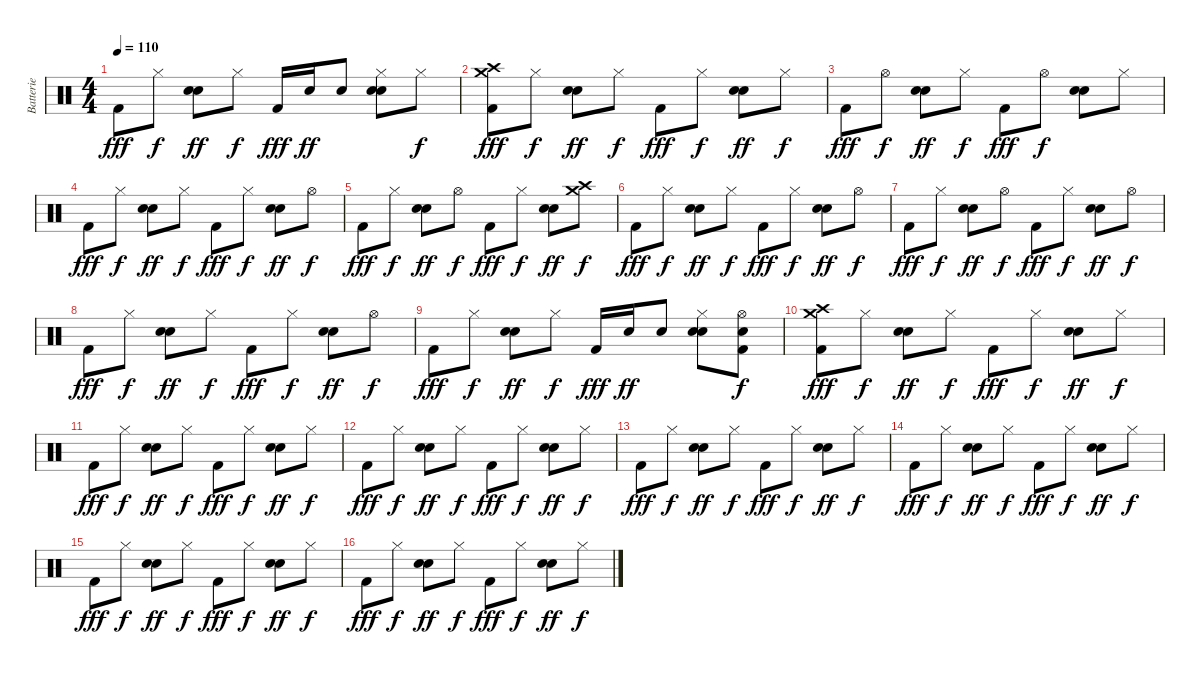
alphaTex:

\track ("Batterie" "Batterie") {instrument percussion}
\staff {score}
\articulation defaults
\ts (4 4)
\tempo 110
\clef neutral
\ks c "Kick (hit) 2".8{dy fff} "Hi-Hat (closed)".8{dy f}
("Snare (hit) 2" "Hand Clap (hit)").8{dy ff} "Hi-Hat (closed)".8{dy f} "Kick (hit) 2".16{dy fff} "Snare (hit) 2".16{dy ff} "Snare (hit) 2".8 ("Hi-Hat (closed)" "Snare (hit) 2" "Hand Clap (hit)").8 "Hi-Hat (closed)".8{dy f} |
("Crash medium (hit)" "Crash high (hit)" "Kick (hit) 2").8{dy fff} "Hi-Hat (closed)".8{dy f} ("Snare (hit) 2" "Hand Clap (hit)").8{dy ff} "Hi-Hat (closed)".8{dy f} "Kick (hit) 2".8{dy fff} "Hi-Hat (closed)".8{dy f} ("Snare (hit) 2" "Hand Clap (hit)").8{dy ff} "Hi-Hat (closed)".8{dy f} |
"Kick (hit) 2".8{dy fff} "Hi-Hat (open)".8{dy f} ("Snare (hit) 2" "Hand Clap (hit)").8{dy ff} "Hi-Hat (closed)".8{dy f} "Kick (hit) 2".8{dy fff} "Hi-Hat (open)".8{dy f} ("Snare (hit) 2" "Hand Clap (hit)").8 "Hi-Hat (closed)".8 |
"Kick (hit) 2".8{dy fff} "Hi-Hat (closed)".8{dy f} ("Snare (hit) 2" "Hand Clap (hit)").8{dy ff} "Hi-Hat (closed)".8{dy f} "Kick (hit) 2".8{dy fff} "Hi-Hat (closed)".8{dy f} ("Snare (hit) 2" "Hand Clap (hit)").8{dy ff} "Hi-Hat (open)".8{dy f} |
"Kick (hit) 2".8{dy fff} "Hi-Hat (closed)".8{dy f} ("Snare (hit) 2" "Hand Clap (hit)").8{dy ff} "Hi-Hat (open)".8{dy f} "Kick (hit) 2".8{dy fff} "Hi-Hat (closed)".8{dy f} ("Snare (hit) 2" "Hand Clap (hit)").8{dy ff} ("Crash medium (hit)" "Crash high (hit)").8{dy f} |
"Kick (hit) 2".8{dy fff} "Hi-Hat (closed)".8{dy f} ("Snare (hit) 2" "Hand Clap (hit)").8{dy ff} "Hi-Hat (closed)".8{dy f} "Kick (hit) 2".8{dy fff} "Hi-Hat (closed)".8{dy f} ("Snare (hit) 2" "Hand Clap (hit)").8{dy ff} "Hi-Hat (open)".8{dy f} |
"Kick (hit) 2".8{dy fff} "Hi-Hat (closed)".8{dy f} ("Snare (hit) 2" "Hand Clap (hit)").8{dy ff} "Hi-Hat (open)".8{dy f} "Kick (hit) 2".8{dy fff} "Hi-Hat (closed)".8{dy f} ("Snare (hit) 2" "Hand Clap (hit)").8{dy ff} "Hi-Hat (open)".8{dy f} |
"Kick (hit) 2".8{dy fff} "Hi-Hat (closed)".8{dy f} ("Snare (hit) 2" "Hand Clap (hit)").8{dy ff} "Hi-Hat (closed)".8{dy f} "Kick (hit) 2".8{dy fff} "Hi-Hat (closed)".8{dy f} ("Snare (hit) 2" "Hand Clap (hit)").8{dy ff} "Hi-Hat (open)".8{dy f} |
"Kick (hit) 2".8{dy fff} "Hi-Hat (closed)".8{dy f} ("Snare (hit) 2" "Hand Clap (hit)").8{dy ff} "Hi-Hat (closed)".8{dy f} "Kick (hit) 2".16{dy fff} "Snare (hit) 2".16{dy ff} "Snare (hit) 2".8 ("Hi-Hat (closed)" "Snare (hit) 2" "Hand Clap (hit)").8 ("Hi-Hat (open)" "Snare (hit) 2" "Kick (hit) 2").8{dy f} |
("Crash medium (hit)" "Crash high (hit)" "Kick (hit) 2").8{dy fff} "Hi-Hat (closed)".8{dy f} ("Snare (hit) 2" "Hand Clap (hit)").8{dy ff} "Hi-Hat (closed)".8{dy f} "Kick (hit) 2".8{dy fff} "Hi-Hat (closed)".8{dy f} ("Snare (hit) 2" "Hand Clap (hit)").8{dy ff} "Hi-Hat (closed)".8{dy f} |
"Kick (hit) 2".8{dy fff} "Hi-Hat (closed)".8{dy f} ("Snare (hit) 2" "Hand Clap (hit)").8{dy ff} "Hi-Hat (closed)".8{dy f} "Kick (hit) 2".8{dy fff} "Hi-Hat (closed)".8{dy f} ("Snare (hit) 2" "Hand Clap (hit)").8{dy ff} "Hi-Hat (closed)".8{dy f} |
"Kick (hit) 2".8{dy fff} "Hi-Hat (closed)".8{dy f} ("Snare (hit) 2" "Hand Clap (hit)").8{dy ff} "Hi-Hat (closed)".8{dy f} "Kick (hit) 2".8{dy fff} "Hi-Hat (closed)".8{dy f} ("Snare (hit) 2" "Hand Clap (hit)").8{dy ff} "Hi-Hat (closed)".8{dy f} |
"Kick (hit) 2".8{dy fff} "Hi-Hat (closed)".8{dy f} ("Snare (hit) 2" "Hand Clap (hit)").8{dy ff} "Hi-Hat (closed)".8{dy f} "Kick (hit) 2".8{dy fff} "Hi-Hat (closed)".8{dy f} ("Snare (hit) 2" "Hand Clap (hit)").8{dy ff} "Hi-Hat (closed)".8{dy f} |
"Kick (hit) 2".8{dy fff} "Hi-Hat (closed)".8{dy f} ("Snare (hit) 2" "Hand Clap (hit)").8{dy ff} "Hi-Hat (closed)".8{dy f} "Kick (hit) 2".8{dy fff} "Hi-Hat (closed)".8{dy f} ("Snare (hit) 2" "Hand Clap (hit)").8{dy ff} "Hi-Hat (closed)".8{dy f} |
"Kick (hit) 2".8{dy fff} "Hi-Hat (closed)".8{dy f} ("Snare (hit) 2" "Hand Clap (hit)").8{dy ff} "Hi-Hat (closed)".8{dy f} "Kick (hit) 2".8{dy fff} "Hi-Hat (closed)".8{dy f} ("Snare (hit) 2" "Hand Clap (hit)").8{dy ff} "Hi-Hat (closed)".8{dy f} |
"Kick (hit) 2".8{dy fff} "Hi-Hat (closed)".8{dy f} ("Snare (hit) 2" "Hand Clap (hit)").8{dy ff} "Hi-Hat (closed)".8{dy f} "Kick (hit) 2".8{dy fff} "Hi-Hat (closed)".8{dy f} ("Snare (hit) 2" "Hand Clap (hit)").8{dy ff} "Hi-Hat (closed)".8{dy f}
